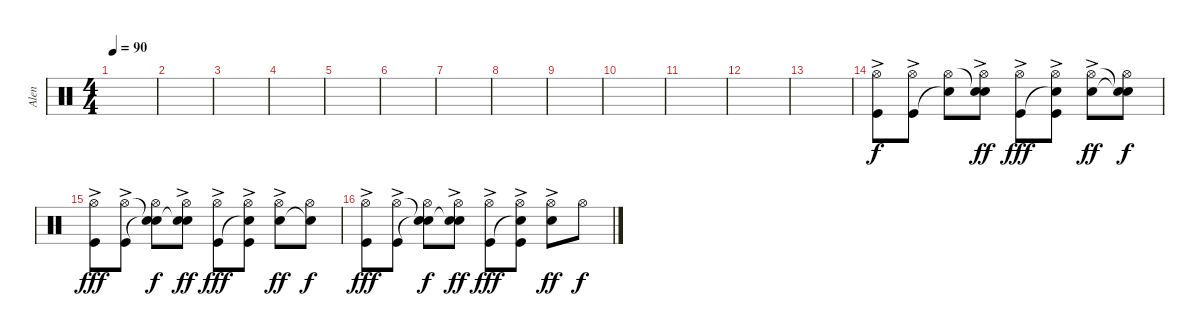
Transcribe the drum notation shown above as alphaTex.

\track ("Alen" "Alen") {instrument percussion}
\staff {score}
\articulation defaults
\ts (4 4)
\tempo 90
\clef neutral
\ks c
|
|
|
|
|
|
|
|
|
|
|
|
|
("Kick (hit)"{ac} "Hi-Hat (open)").8 ("Kick (hit)"{ac} "Hi-Hat (open)").8 ("Snare (hit)"{t} "Hi-Hat (open)").8{dy f} ("Snare (hit) 2"{ac} "Snare (hit) 2"{t} "Hi-Hat (open)").8{dy ff} ("Kick (hit)"{ac} "Hi-Hat (open)").8{dy fff} ("Snare (hit)"{t} "Kick (hit)"{ac} "Hi-Hat (open)").8 ("Snare (hit) 2"{ac} "Hi-Hat (open)").8{dy ff} ("Snare (hit)"{t} "Snare (hit)"{t} "Hi-Hat (open)").8{dy f} |
("Kick (hit)"{ac} "Hi-Hat (open)").8{dy fff} ("Kick (hit)"{ac} "Hi-Hat (open)").8 ("Snare (hit)"{t} "Snare (hit)"{t} "Hi-Hat (open)").8{dy f} ("Snare (hit) 2"{ac} "Snare (hit)"{t} "Hi-Hat (open)").8{dy ff} ("Kick (hit)"{ac} "Hi-Hat (open)").8{dy fff} ("Snare (hit)"{t} "Kick (hit)"{ac} "Hi-Hat (open)").8 ("Snare (hit) 2"{ac} "Hi-Hat (open)").8{dy ff} ("Snare (hit)"{t} "Hi-Hat (open)").8{dy f} |
("Kick (hit)"{ac} "Hi-Hat (open)").8{dy fff} ("Kick (hit)"{ac} "Hi-Hat (open)").8 ("Snare (hit)"{t} "Snare (hit)"{t} "Hi-Hat (open)").8{dy f} ("Snare (hit) 2"{ac} "Snare (hit)"{t} "Hi-Hat (open)").8{dy ff} ("Kick (hit)"{ac} "Hi-Hat (open)").8{dy fff} ("Snare (hit)"{t} "Kick (hit)"{ac} "Hi-Hat (open)").8 ("Snare (hit) 2"{ac} "Hi-Hat (open)").8{dy ff} "Hi-Hat (open)".8{dy f}
